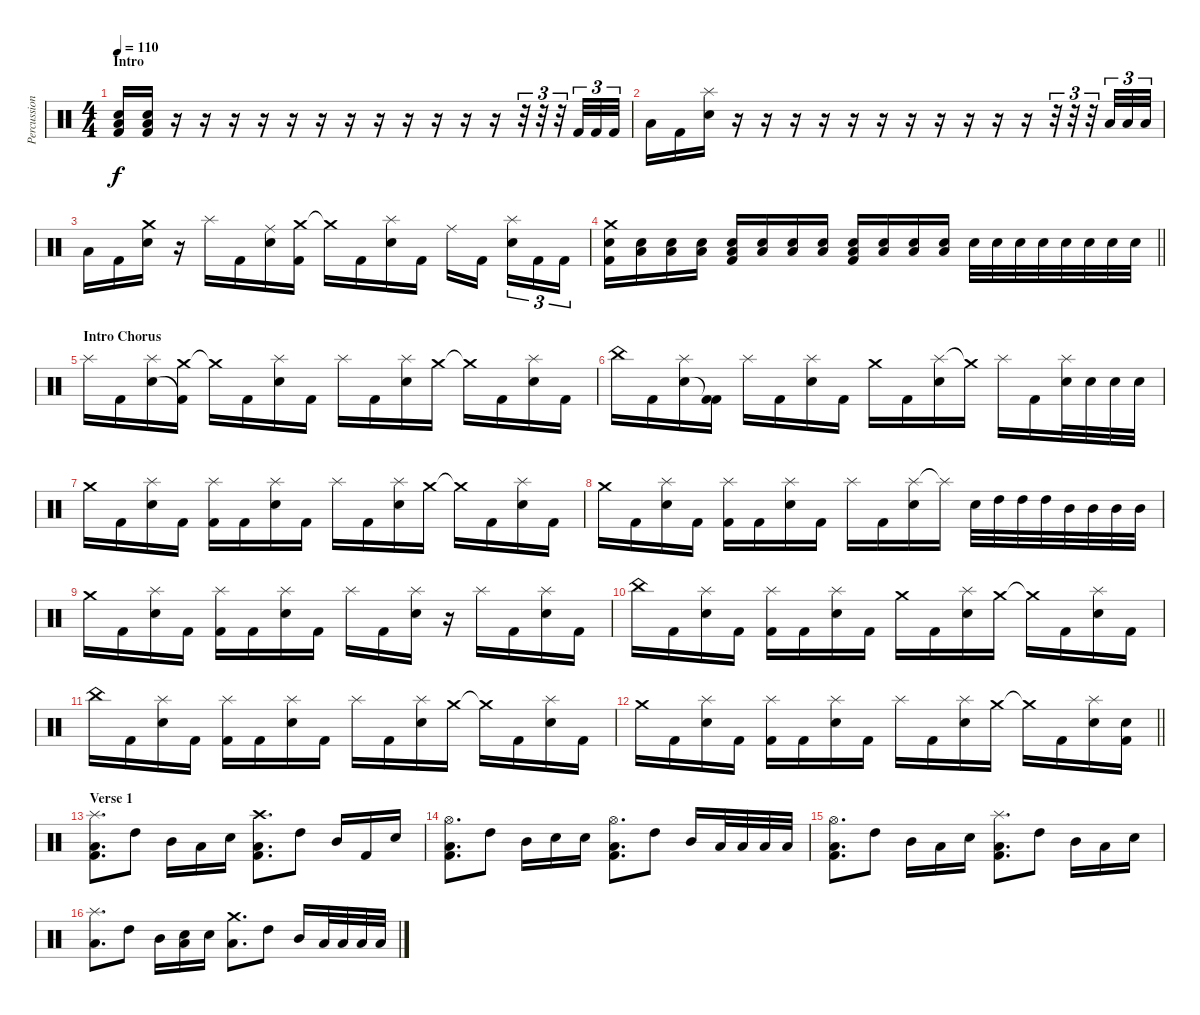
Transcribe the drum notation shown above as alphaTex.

\track ("Percussion" "Percussion") {instrument percussion}
\staff {score}
\articulation defaults
\ts (4 4)
\section ("" "Intro")
\tempo 110
\clef neutral
\ks c
("Kick (hit) 2" "Electric Snare (hit)" "Low Floor Tom (hit)").16{dy f} ("Kick (hit) 2" "Electric Snare (hit)" "Low Floor Tom (hit)").16 r.16 r.16 r.16 r.16 r.16 r.16 r.16 r.16 r.16 r.16 r.16 r.16 r.32{tu (3 2)} r.32{tu (3 2)} r.32{tu (3 2)} "Kick (hit) 2".32{tu (3 2)} "Kick (hit) 2".32{tu (3 2)} "Kick (hit) 2".32{tu (3 2)} |
"Low Tom (hit)".16 "Kick (hit) 2".16 ("Splash (hit)" "Electric Snare (hit)").16 r.16 r.16 r.16 r.16 r.16 r.16 r.16 r.16 r.16 r.16 r.16 r.32{tu (3 2)} r.32{tu (3 2)} r.32{tu (3 2)} "Low Tom (hit)".32{tu (3 2)} "Low Tom (hit)".32{tu (3 2)} "Low Tom (hit)".32{tu (3 2)} |
"Low Tom (hit)".16 "Kick (hit) 2".16 ("Crash medium (hit)" "Electric Snare (hit)").16 r.16 "Splash (hit)".16 "Kick (hit) 2".16 ("Ride (middle)" "Electric Snare (hit)").16 ("Crash medium (hit)" "Kick (hit) 2").16 "Crash medium (hit)"{t}.16 "Kick (hit) 2".16 ("Splash (hit)" "Electric Snare (hit)").16 "Kick (hit) 2".16 "Ride (middle)".16 "Kick (hit) 2".16{beam splitsecondary} ("Splash (hit)" "Electric Snare (hit)").16{tu (3 2)} "Kick (hit) 2".16{tu (3 2)} "Kick (hit) 2".16{tu (3 2)} |
\barLineRight lightlight
("Electric Snare (hit)" "Kick (hit) 2" "Crash medium (hit)").16 ("Electric Snare (hit)" "Low Floor Tom (hit)").16 ("Electric Snare (hit)" "Low Floor Tom (hit)").16 ("Electric Snare (hit)" "Low Floor Tom (hit)").16 ("Electric Snare (hit)" "Kick (hit) 2" "Low Floor Tom (hit)").16 ("Electric Snare (hit)" "Low Floor Tom (hit)").16 ("Electric Snare (hit)" "Low Floor Tom (hit)").16 ("Electric Snare (hit)" "Low Floor Tom (hit)").16 ("Electric Snare (hit)" "Kick (hit) 2" "Low Floor Tom (hit)").16 ("Electric Snare (hit)" "Low Floor Tom (hit)").16 ("Electric Snare (hit)" "Low Floor Tom (hit)").16 ("Electric Snare (hit)" "Low Floor Tom (hit)").16 "Electric Snare (hit)".32 "Electric Snare (hit)".32 "Electric Snare (hit)".32 "Electric Snare (hit)".32 "Electric Snare (hit)".32 "Electric Snare (hit)".32 "Electric Snare (hit)".32 "Electric Snare (hit)".32 |
\section ("" "Intro Chorus")
"Splash (hit)".16 "Kick (hit) 2".16 ("Splash (hit)" "Electric Snare (hit)").16 ("Crash medium (hit)" "Kick (hit) 2"{t}).16 "Crash medium (hit)"{t}.16 "Kick (hit) 2".16 ("Splash (hit)" "Electric Snare (hit)").16 "Kick (hit) 2".16 "Splash (hit)".16 "Kick (hit) 2".16 ("Splash (hit)" "Electric Snare (hit)").16 "Crash medium (hit)".16 "Crash medium (hit)"{t}.16 "Kick (hit) 2".16 ("Electric Snare (hit)" "Splash (hit)").16 "Kick (hit) 2".16 |
"China (hit)".16 "Kick (hit) 2".16 ("Splash (hit)" "Electric Snare (hit)").16 ("Kick (hit) 2" "Kick (hit) 2"{t}).16 "Splash (hit)".16 "Kick (hit) 2".16 ("Splash (hit)" "Electric Snare (hit)").16 "Kick (hit) 2".16 "Crash medium (hit)".16 "Kick (hit) 2".16 ("Splash (hit)" "Electric Snare (hit)").16 "Crash medium (hit)"{t}.16 "Splash (hit)".16 "Kick (hit) 2".16 ("Electric Snare (hit)" "Splash (hit)").32 "Electric Snare (hit)".32 "Electric Snare (hit)".32 "Electric Snare (hit)".32 |
"Crash medium (hit)".16 "Kick (hit) 2".16 ("Splash (hit)" "Electric Snare (hit)").16 "Kick (hit) 2".16 ("Splash (hit)" "Kick (hit) 2").16 "Kick (hit) 2".16 ("Splash (hit)" "Electric Snare (hit)").16 "Kick (hit) 2".16 "Splash (hit)".16 "Kick (hit) 2".16 ("Splash (hit)" "Electric Snare (hit)").16 "Crash medium (hit)".16 "Crash medium (hit)"{t}.16 "Kick (hit) 2".16 ("Electric Snare (hit)" "Splash (hit)").16 "Kick (hit) 2".16 |
"Crash medium (hit)".16 "Kick (hit) 2".16 ("Splash (hit)" "Electric Snare (hit)").16 "Kick (hit) 2".16 ("Splash (hit)" "Kick (hit) 2").16 "Kick (hit) 2".16 ("Splash (hit)" "Electric Snare (hit)").16 "Kick (hit) 2".16 "Splash (hit)".16 "Kick (hit) 2".16 ("Splash (hit)" "Electric Snare (hit)").16 "Splash (hit)"{t}.16 "Electric Snare (hit)".32 "High Tom (hit)".32 "High Tom (hit)".32 "High Tom (hit)".32 "Mid Tom (hit)".32 "Mid Tom (hit)".32 "Mid Tom (hit)".32 "Mid Tom (hit)".32 |
"Crash medium (hit)".16 "Kick (hit) 2".16 ("Splash (hit)" "Electric Snare (hit)").16 "Kick (hit) 2".16 ("Splash (hit)" "Kick (hit) 2").16 "Kick (hit) 2".16 ("Splash (hit)" "Electric Snare (hit)").16 "Kick (hit) 2".16 "Splash (hit)".16 "Kick (hit) 2".16 ("Splash (hit)" "Electric Snare (hit)").16 r.16 "Splash (hit)".16 "Kick (hit) 2".16 ("Electric Snare (hit)" "Splash (hit)").16 "Kick (hit) 2".16 |
"China (hit)".16 "Kick (hit) 2".16 ("Splash (hit)" "Electric Snare (hit)").16 "Kick (hit) 2".16 ("Splash (hit)" "Kick (hit) 2").16 "Kick (hit) 2".16 ("Splash (hit)" "Electric Snare (hit)").16 "Kick (hit) 2".16 "Crash medium (hit)".16 "Kick (hit) 2".16 ("Splash (hit)" "Electric Snare (hit)").16 "Crash medium (hit)".16 "Crash medium (hit)"{t}.16 "Kick (hit) 2".16 ("Electric Snare (hit)" "Splash (hit)").16 "Kick (hit) 2".16 |
"China (hit)".16 "Kick (hit) 2".16 ("Splash (hit)" "Electric Snare (hit)").16 "Kick (hit) 2".16 ("Splash (hit)" "Kick (hit) 2").16 "Kick (hit) 2".16 ("Splash (hit)" "Electric Snare (hit)").16 "Kick (hit) 2".16 "Splash (hit)".16 "Kick (hit) 2".16 ("Splash (hit)" "Electric Snare (hit)").16 "Crash medium (hit)".16 "Crash medium (hit)"{t}.16 "Kick (hit) 2".16 ("Electric Snare (hit)" "Splash (hit)").16 "Kick (hit) 2".16 |
\barLineRight lightlight "Crash medium (hit)".16 "Kick (hit) 2".16
("Splash (hit)" "Electric Snare (hit)").16 "Kick (hit) 2".16 ("Splash (hit)" "Kick (hit) 2").16 "Kick (hit) 2".16 ("Splash (hit)" "Electric Snare (hit)").16 "Kick (hit) 2".16 "Splash (hit)".16 "Kick (hit) 2".16 ("Splash (hit)" "Electric Snare (hit)").16 "Crash medium (hit)".16 "Crash medium (hit)"{t}.16 "Kick (hit) 2".16 ("Electric Snare (hit)" "Splash (hit)").16 ("Electric Snare (hit)" "Kick (hit) 2").16 |
\section ("" "Verse 1")
("Splash (hit)" "Low Floor Tom (hit)" "Kick (hit) 2").8{d} "High Tom (hit)".8 "Mid Tom (hit)".16 "Low Tom (hit)".16 "Electric Snare (hit)".16 ("Crash high (hit)" "Low Floor Tom (hit)" "Kick (hit) 2").8{d} "High Tom (hit)".8 "Mid Tom (hit)".16 "Kick (hit) 2".16 "Electric Snare (hit)".16 |
("Hi-Hat (open)" "Low Floor Tom (hit)" "Kick (hit) 2").8{d} "High Tom (hit)".8 "Mid Tom (hit)".16 "Electric Snare (hit)".16 "Electric Snare (hit)".16 ("Hi-Hat (open)" "Low Floor Tom (hit)" "Kick (hit) 2").8{d} "High Tom (hit)".8 "Mid Tom (hit)".16 "Low Floor Tom (hit)".32 "Low Floor Tom (hit)".32 "Low Floor Tom (hit)".32 "Low Floor Tom (hit)".32 |
("Hi-Hat (open)" "Low Floor Tom (hit)" "Kick (hit) 2").8{d} "High Tom (hit)".8 "Mid Tom (hit)".16 "Low Tom (hit)".16 "Electric Snare (hit)".16 ("Splash (hit)" "Low Floor Tom (hit)" "Kick (hit) 2").8{d} "High Tom (hit)".8 "Mid Tom (hit)".16 "Low Tom (hit)".16 "Electric Snare (hit)".16 |
("Splash (hit)" "Low Floor Tom (hit)").8{d} "High Tom (hit)".8 "Mid Tom (hit)".16 ("Low Tom (hit)" "Electric Snare (hit)").16 "Electric Snare (hit)".16 ("Crash medium (hit)" "Low Floor Tom (hit)").8{d} "High Tom (hit)".8 "Mid Tom (hit)".16 "Low Floor Tom (hit)".32 "Low Floor Tom (hit)".32 "Low Floor Tom (hit)".32 "Low Floor Tom (hit)".32
